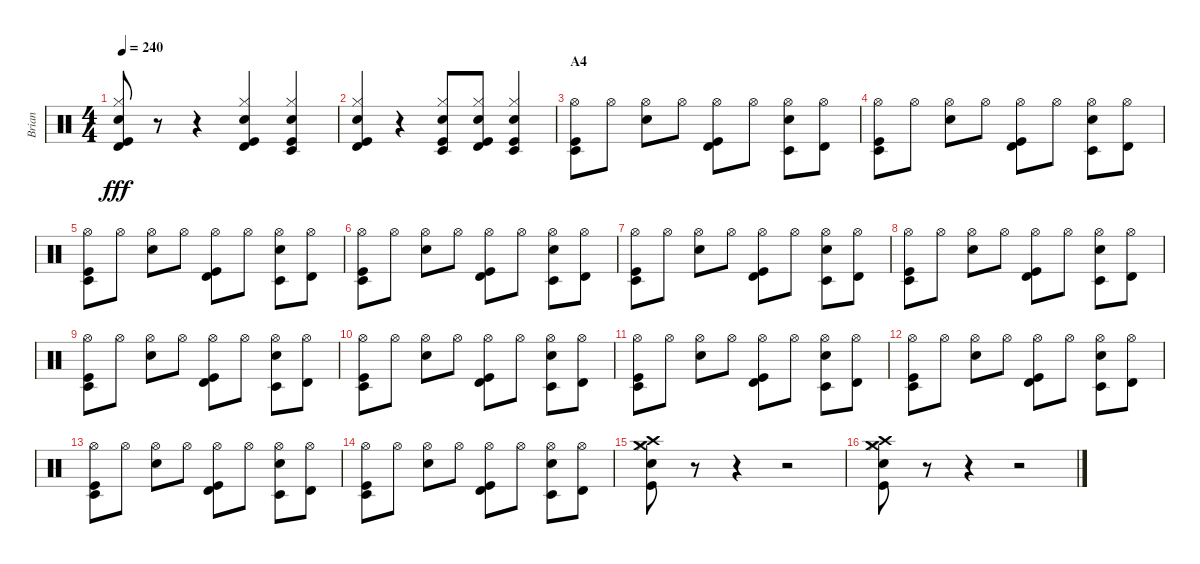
\track ("Brian" "Brian") {instrument percussion}
\staff {score}
\articulation defaults
\ts (4 4)
\tempo 240
\clef neutral
\ks c
("Timbale high (hit)" "Hi-Hat (closed)" "Snare (hit) 2" "Kick (hit)").8{dy fff} r.8 r.4 ("Timbale high (hit)" "Hi-Hat (closed)" "Snare (hit) 2" "Kick (hit)").4 ("Timbale low (hit)" "Hi-Hat (closed)" "Snare (hit) 2" "Kick (hit)").4 |
("Timbale high (hit)" "Hi-Hat (closed)" "Snare (hit) 2" "Kick (hit)").4 r.4 ("Timbale low (hit)" "Hi-Hat (closed)" "Snare (hit) 2" "Kick (hit)").8 ("Timbale high (hit)" "Hi-Hat (closed)" "Snare (hit) 2" "Kick (hit)").8 ("Timbale low (hit)" "Hi-Hat (closed)" "Snare (hit) 2" "Kick (hit)").4 |
\section ("" "A4")
("Timbale low (hit)" "Hi-Hat (open)" "Kick (hit)").8 "Hi-Hat (open)".8 ("Hi-Hat (open)" "Snare (hit) 2").8 "Hi-Hat (open)".8 ("Timbale high (hit)" "Hi-Hat (open)" "Kick (hit)").8 "Hi-Hat (open)".8 ("Timbale low (hit)" "Hi-Hat (open)" "Snare (hit) 2").8 ("Timbale high (hit)" "Hi-Hat (open)").8 |
("Timbale low (hit)" "Hi-Hat (open)" "Kick (hit)").8 "Hi-Hat (open)".8 ("Hi-Hat (open)" "Snare (hit) 2").8 "Hi-Hat (open)".8 ("Timbale high (hit)" "Hi-Hat (open)" "Kick (hit)").8 "Hi-Hat (open)".8 ("Timbale low (hit)" "Hi-Hat (open)" "Snare (hit) 2").8 ("Timbale high (hit)" "Hi-Hat (open)").8 |
("Timbale low (hit)" "Hi-Hat (open)" "Kick (hit)").8 "Hi-Hat (open)".8 ("Hi-Hat (open)" "Snare (hit) 2").8 "Hi-Hat (open)".8 ("Timbale high (hit)" "Hi-Hat (open)" "Kick (hit)").8 "Hi-Hat (open)".8 ("Timbale low (hit)" "Hi-Hat (open)" "Snare (hit) 2").8 ("Timbale high (hit)" "Hi-Hat (open)").8 |
("Timbale low (hit)" "Hi-Hat (open)" "Kick (hit)").8 "Hi-Hat (open)".8 ("Hi-Hat (open)" "Snare (hit) 2").8 "Hi-Hat (open)".8 ("Timbale high (hit)" "Hi-Hat (open)" "Kick (hit)").8 "Hi-Hat (open)".8 ("Timbale low (hit)" "Hi-Hat (open)" "Snare (hit) 2").8 ("Timbale high (hit)" "Hi-Hat (open)").8 |
("Timbale low (hit)" "Hi-Hat (open)" "Kick (hit)").8 "Hi-Hat (open)".8 ("Hi-Hat (open)" "Snare (hit) 2").8 "Hi-Hat (open)".8 ("Timbale high (hit)" "Hi-Hat (open)" "Kick (hit)").8 "Hi-Hat (open)".8 ("Timbale low (hit)" "Hi-Hat (open)" "Snare (hit) 2").8 ("Timbale high (hit)" "Hi-Hat (open)").8 |
("Timbale low (hit)" "Hi-Hat (open)" "Kick (hit)").8 "Hi-Hat (open)".8 ("Hi-Hat (open)" "Snare (hit) 2").8 "Hi-Hat (open)".8 ("Timbale high (hit)" "Hi-Hat (open)" "Kick (hit)").8 "Hi-Hat (open)".8 ("Timbale low (hit)" "Hi-Hat (open)" "Snare (hit) 2").8 ("Timbale high (hit)" "Hi-Hat (open)").8 |
("Timbale low (hit)" "Hi-Hat (open)" "Kick (hit)").8 "Hi-Hat (open)".8 ("Hi-Hat (open)" "Snare (hit) 2").8 "Hi-Hat (open)".8 ("Timbale high (hit)" "Hi-Hat (open)" "Kick (hit)").8 "Hi-Hat (open)".8 ("Timbale low (hit)" "Hi-Hat (open)" "Snare (hit) 2").8 ("Timbale high (hit)" "Hi-Hat (open)").8 |
("Timbale low (hit)" "Hi-Hat (open)" "Kick (hit)").8 "Hi-Hat (open)".8 ("Hi-Hat (open)" "Snare (hit) 2").8 "Hi-Hat (open)".8 ("Timbale high (hit)" "Hi-Hat (open)" "Kick (hit)").8 "Hi-Hat (open)".8 ("Timbale low (hit)" "Hi-Hat (open)" "Snare (hit) 2").8 ("Timbale high (hit)" "Hi-Hat (open)").8 |
("Timbale low (hit)" "Hi-Hat (open)" "Kick (hit)").8 "Hi-Hat (open)".8 ("Hi-Hat (open)" "Snare (hit) 2").8 "Hi-Hat (open)".8 ("Timbale high (hit)" "Hi-Hat (open)" "Kick (hit)").8 "Hi-Hat (open)".8 ("Timbale low (hit)" "Hi-Hat (open)" "Snare (hit) 2").8 ("Timbale high (hit)" "Hi-Hat (open)").8 |
("Timbale low (hit)" "Hi-Hat (open)" "Kick (hit)").8 "Hi-Hat (open)".8 ("Hi-Hat (open)" "Snare (hit) 2").8 "Hi-Hat (open)".8 ("Timbale high (hit)" "Hi-Hat (open)" "Kick (hit)").8 "Hi-Hat (open)".8 ("Timbale low (hit)" "Hi-Hat (open)" "Snare (hit) 2").8 ("Timbale high (hit)" "Hi-Hat (open)").8 |
("Timbale low (hit)" "Hi-Hat (open)" "Kick (hit)").8 "Hi-Hat (open)".8 ("Hi-Hat (open)" "Snare (hit) 2").8 "Hi-Hat (open)".8 ("Timbale high (hit)" "Hi-Hat (open)" "Kick (hit)").8 "Hi-Hat (open)".8 ("Timbale low (hit)" "Hi-Hat (open)" "Snare (hit) 2").8 ("Timbale high (hit)" "Hi-Hat (open)").8 |
("Timbale low (hit)" "Hi-Hat (open)" "Kick (hit)").8 "Hi-Hat (open)".8 ("Hi-Hat (open)" "Snare (hit) 2").8 "Hi-Hat (open)".8 ("Timbale high (hit)" "Hi-Hat (open)" "Kick (hit)").8 "Hi-Hat (open)".8 ("Timbale low (hit)" "Hi-Hat (open)" "Snare (hit) 2").8 ("Timbale high (hit)" "Hi-Hat (open)").8 |
("Crash high (hit)" "Crash medium (hit)" "Hi-Hat (closed)" "Electric Snare (hit)" "Kick (hit)").8 r.8 r.4 r.2 |
("Crash high (hit)" "Crash medium (hit)" "Hi-Hat (closed)" "Electric Snare (hit)" "Kick (hit)").8 r.8 r.4 r.2
